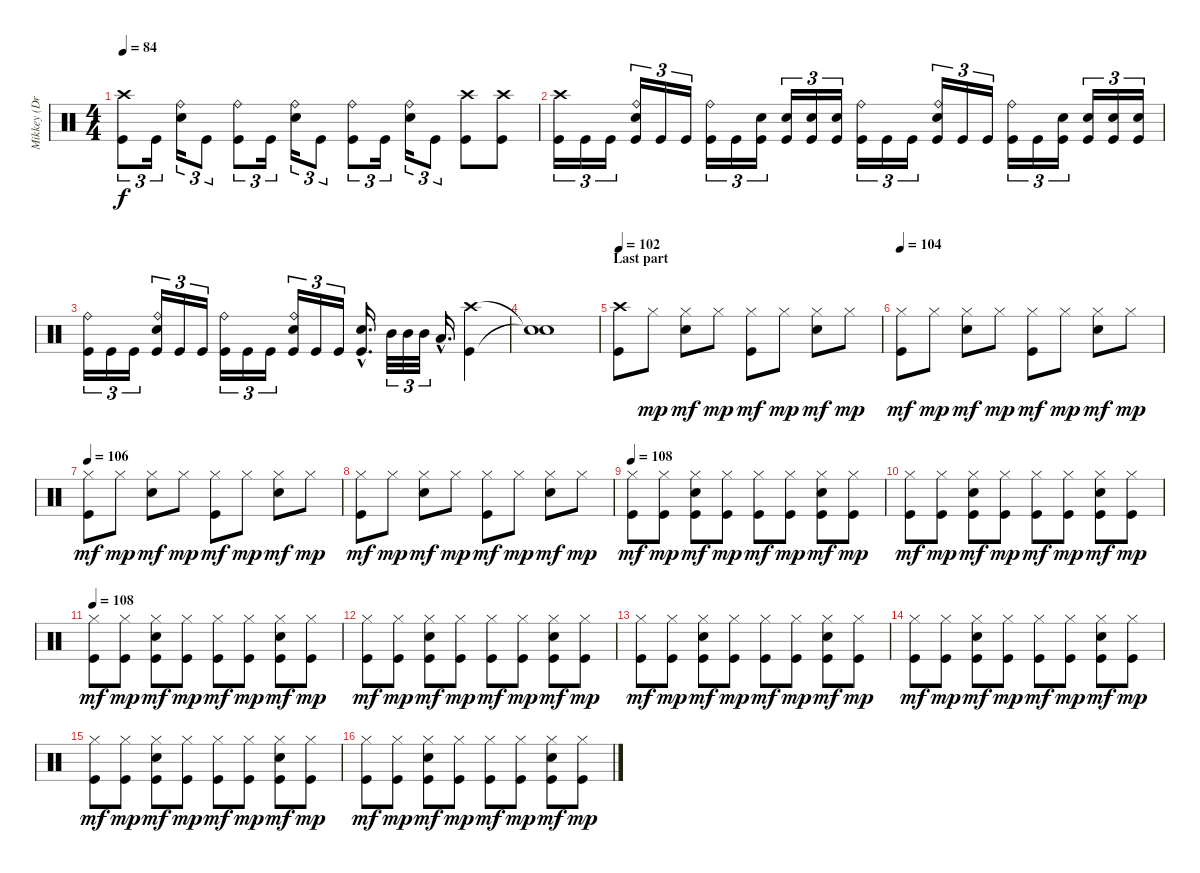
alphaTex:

\track ("Mikkey (Drums)" "Mikkey (Dr") {instrument percussion}
\staff {score}
\articulation defaults
\ts (4 4)
\tempo 84
\clef neutral
\ks c
("Crash high (hit)" "Kick (hit)").8{tu (3 2) dy f} "Kick (hit)".16{tu (3 2)} ("Ride (bell)" "Electric Snare (hit)").16{tu (3 2)} "Kick (hit)".8{tu (3 2)} ("Ride (bell)" "Kick (hit)").8{tu (3 2)} "Kick (hit)".16{tu (3 2)} ("Ride (bell)" "Electric Snare (hit)").16{tu (3 2)} "Kick (hit)".8{tu (3 2)} ("Ride (bell)" "Kick (hit)").8{tu (3 2)} "Kick (hit)".16{tu (3 2)} ("Ride (bell)" "Electric Snare (hit)").16{tu (3 2)} "Kick (hit)".8{tu (3 2)} ("Crash high (hit)" "Kick (hit)").8 ("Crash high (hit)" "Kick (hit)").8 |
("Crash high (hit)" "Kick (hit)").16{tu (3 2)} "Kick (hit)".16{tu (3 2)} "Kick (hit)".16{tu (3 2)} ("Ride (bell)" "Electric Snare (hit)" "Kick (hit)").16{tu (3 2)} "Kick (hit)".16{tu (3 2)} "Kick (hit)".16{tu (3 2)} ("Ride (bell)" "Kick (hit)").16{tu (3 2)} "Kick (hit)".16{tu (3 2)} ("Electric Snare (hit)" "Kick (hit)").16{tu (3 2)} ("Electric Snare (hit)" "Kick (hit)").16{tu (3 2)} ("Electric Snare (hit)" "Kick (hit)").16{tu (3 2)} ("Electric Snare (hit)" "Kick (hit)").16{tu (3 2)} ("Ride (bell)" "Kick (hit)").16{tu (3 2)} "Kick (hit)".16{tu (3 2)} "Kick (hit)".16{tu (3 2)} ("Ride (bell)" "Electric Snare (hit)" "Kick (hit)").16{tu (3 2)} "Kick (hit)".16{tu (3 2)} "Kick (hit)".16{tu (3 2)} ("Ride (bell)" "Kick (hit)").16{tu (3 2)} "Kick (hit)".16{tu (3 2)} ("Electric Snare (hit)" "Kick (hit)").16{tu (3 2)} ("Electric Snare (hit)" "Kick (hit)").16{tu (3 2)} ("Electric Snare (hit)" "Kick (hit)").16{tu (3 2)} ("Electric Snare (hit)" "Kick (hit)").16{tu (3 2)} |
("Ride (bell)" "Kick (hit)").16{tu (3 2)} "Kick (hit)".16{tu (3 2)} "Kick (hit)".16{tu (3 2)} ("Ride (bell)" "Electric Snare (hit)" "Kick (hit)").16{tu (3 2)} "Kick (hit)".16{tu (3 2)} "Kick (hit)".16{tu (3 2)} ("Ride (bell)" "Kick (hit)").16{tu (3 2)} "Kick (hit)".16{tu (3 2)} "Kick (hit)".16{tu (3 2)} ("Ride (bell)" "Electric Snare (hit)" "Kick (hit)").16{tu (3 2)} "Kick (hit)".16{tu (3 2)} "Kick (hit)".16{tu (3 2)} ("Electric Snare (hit)"{hac} "Kick (hit)"{hac}).16{d} "Mid Tom (hit)".32{tu (3 2)} "Mid Tom (hit)".32{tu (3 2)} "Mid Tom (hit)".32{tu (3 2)} "Low Tom (hit)"{hac}.16{d} ("Crash high (hit)" "Kick (hit)").4 |
("Snare (hit)"{t} "Snare (hit)"{t}).1 |
\section ("" "Last part")
\tempo 102
("Crash high (hit)" "Kick (hit)").8 "Hi-Hat (closed)".8{dy mp} ("Hi-Hat (closed)" "Electric Snare (hit)").8{dy mf} "Hi-Hat (closed)".8{dy mp} ("Hi-Hat (closed)" "Kick (hit)").8{dy mf} "Hi-Hat (closed)".8{dy mp} ("Hi-Hat (closed)" "Electric Snare (hit)").8{dy mf} "Hi-Hat (closed)".8{dy mp} |
\tempo 104
("Hi-Hat (closed)" "Kick (hit)").8{dy mf} "Hi-Hat (closed)".8{dy mp} ("Hi-Hat (closed)" "Electric Snare (hit)").8{dy mf} "Hi-Hat (closed)".8{dy mp} ("Hi-Hat (closed)" "Kick (hit)").8{dy mf} "Hi-Hat (closed)".8{dy mp} ("Hi-Hat (closed)" "Electric Snare (hit)").8{dy mf} "Hi-Hat (closed)".8{dy mp} |
\tempo 106
("Hi-Hat (closed)" "Kick (hit)").8{dy mf} "Hi-Hat (closed)".8{dy mp} ("Hi-Hat (closed)" "Electric Snare (hit)").8{dy mf} "Hi-Hat (closed)".8{dy mp} ("Hi-Hat (closed)" "Kick (hit)").8{dy mf} "Hi-Hat (closed)".8{dy mp} ("Hi-Hat (closed)" "Electric Snare (hit)").8{dy mf} "Hi-Hat (closed)".8{dy mp} |
("Hi-Hat (closed)" "Kick (hit)").8{dy mf} "Hi-Hat (closed)".8{dy mp} ("Hi-Hat (closed)" "Electric Snare (hit)").8{dy mf} "Hi-Hat (closed)".8{dy mp} ("Hi-Hat (closed)" "Kick (hit)").8{dy mf} "Hi-Hat (closed)".8{dy mp} ("Hi-Hat (closed)" "Electric Snare (hit)").8{dy mf} "Hi-Hat (closed)".8{dy mp} |
\tempo 108
("Hi-Hat (closed)" "Kick (hit)").8{dy mf} ("Hi-Hat (closed)" "Kick (hit)").8{dy mp} ("Hi-Hat (closed)" "Electric Snare (hit)" "Kick (hit)").8{dy mf} ("Hi-Hat (closed)" "Kick (hit)").8{dy mp} ("Hi-Hat (closed)" "Kick (hit)").8{dy mf} ("Hi-Hat (closed)" "Kick (hit)").8{dy mp} ("Hi-Hat (closed)" "Electric Snare (hit)" "Kick (hit)").8{dy mf} ("Hi-Hat (closed)" "Kick (hit)").8{dy mp} |
("Hi-Hat (closed)" "Kick (hit)").8{dy mf} ("Hi-Hat (closed)" "Kick (hit)").8{dy mp} ("Hi-Hat (closed)" "Electric Snare (hit)" "Kick (hit)").8{dy mf} ("Hi-Hat (closed)" "Kick (hit)").8{dy mp} ("Hi-Hat (closed)" "Kick (hit)").8{dy mf} ("Hi-Hat (closed)" "Kick (hit)").8{dy mp} ("Hi-Hat (closed)" "Electric Snare (hit)" "Kick (hit)").8{dy mf} ("Hi-Hat (closed)" "Kick (hit)").8{dy mp} |
\tempo 108
("Hi-Hat (closed)" "Kick (hit)").8{dy mf} ("Hi-Hat (closed)" "Kick (hit)").8{dy mp} ("Hi-Hat (closed)" "Electric Snare (hit)" "Kick (hit)").8{dy mf} ("Hi-Hat (closed)" "Kick (hit)").8{dy mp} ("Hi-Hat (closed)" "Kick (hit)").8{dy mf} ("Hi-Hat (closed)" "Kick (hit)").8{dy mp} ("Hi-Hat (closed)" "Electric Snare (hit)" "Kick (hit)").8{dy mf} ("Hi-Hat (closed)" "Kick (hit)").8{dy mp} |
("Hi-Hat (closed)" "Kick (hit)").8{dy mf} ("Hi-Hat (closed)" "Kick (hit)").8{dy mp} ("Hi-Hat (closed)" "Electric Snare (hit)" "Kick (hit)").8{dy mf} ("Hi-Hat (closed)" "Kick (hit)").8{dy mp} ("Hi-Hat (closed)" "Kick (hit)").8{dy mf} ("Hi-Hat (closed)" "Kick (hit)").8{dy mp} ("Hi-Hat (closed)" "Electric Snare (hit)" "Kick (hit)").8{dy mf} ("Hi-Hat (closed)" "Kick (hit)").8{dy mp} |
("Hi-Hat (closed)" "Kick (hit)").8{dy mf} ("Hi-Hat (closed)" "Kick (hit)").8{dy mp} ("Hi-Hat (closed)" "Electric Snare (hit)" "Kick (hit)").8{dy mf} ("Hi-Hat (closed)" "Kick (hit)").8{dy mp} ("Hi-Hat (closed)" "Kick (hit)").8{dy mf} ("Hi-Hat (closed)" "Kick (hit)").8{dy mp} ("Hi-Hat (closed)" "Electric Snare (hit)" "Kick (hit)").8{dy mf} ("Hi-Hat (closed)" "Kick (hit)").8{dy mp} |
("Hi-Hat (closed)" "Kick (hit)").8{dy mf} ("Hi-Hat (closed)" "Kick (hit)").8{dy mp} ("Hi-Hat (closed)" "Electric Snare (hit)" "Kick (hit)").8{dy mf} ("Hi-Hat (closed)" "Kick (hit)").8{dy mp} ("Hi-Hat (closed)" "Kick (hit)").8{dy mf} ("Hi-Hat (closed)" "Kick (hit)").8{dy mp} ("Hi-Hat (closed)" "Electric Snare (hit)" "Kick (hit)").8{dy mf} ("Hi-Hat (closed)" "Kick (hit)").8{dy mp} |
("Hi-Hat (closed)" "Kick (hit)").8{dy mf} ("Hi-Hat (closed)" "Kick (hit)").8{dy mp} ("Hi-Hat (closed)" "Electric Snare (hit)" "Kick (hit)").8{dy mf} ("Hi-Hat (closed)" "Kick (hit)").8{dy mp} ("Hi-Hat (closed)" "Kick (hit)").8{dy mf} ("Hi-Hat (closed)" "Kick (hit)").8{dy mp} ("Hi-Hat (closed)" "Electric Snare (hit)" "Kick (hit)").8{dy mf} ("Hi-Hat (closed)" "Kick (hit)").8{dy mp} |
("Hi-Hat (closed)" "Kick (hit)").8{dy mf} ("Hi-Hat (closed)" "Kick (hit)").8{dy mp} ("Hi-Hat (closed)" "Electric Snare (hit)" "Kick (hit)").8{dy mf} ("Hi-Hat (closed)" "Kick (hit)").8{dy mp} ("Hi-Hat (closed)" "Kick (hit)").8{dy mf} ("Hi-Hat (closed)" "Kick (hit)").8{dy mp} ("Hi-Hat (closed)" "Electric Snare (hit)" "Kick (hit)").8{dy mf} ("Hi-Hat (closed)" "Kick (hit)").8{dy mp}
